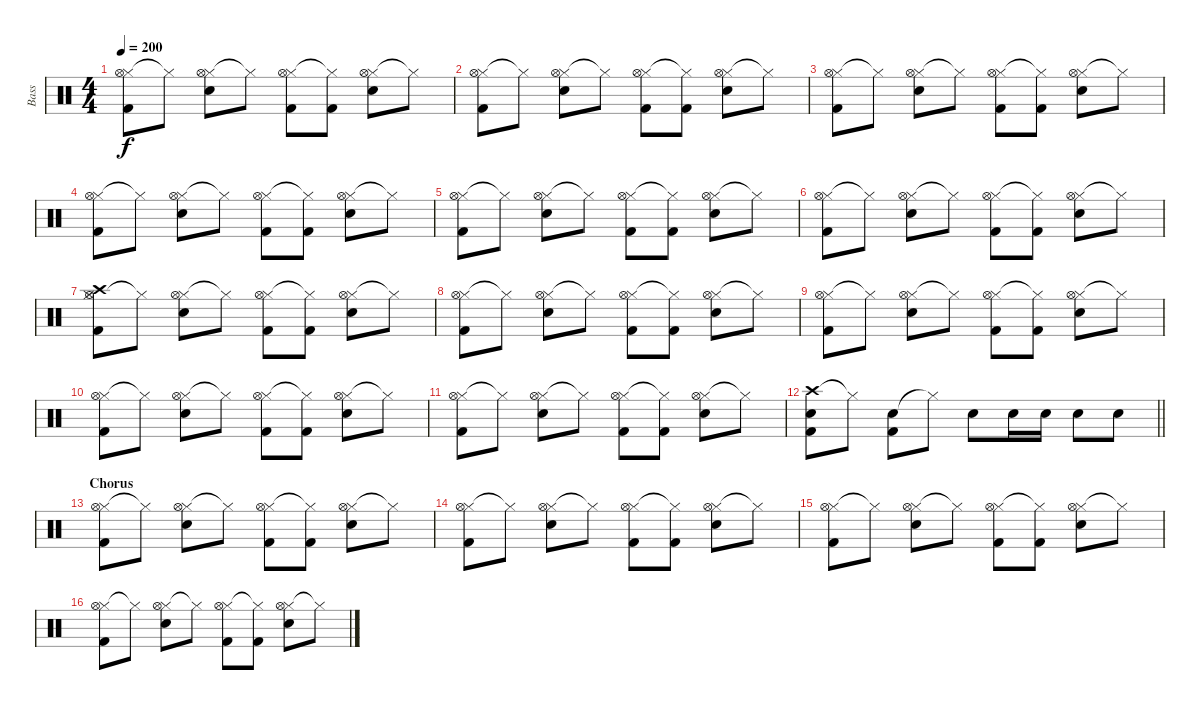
\track ("Bass" "Bass") {instrument percussion}
\staff {score}
\articulation defaults
\ts (4 4)
\tempo 200
\clef neutral
\ks c
("Hi-Hat (closed)" "Hi-Hat (open)" "Kick (hit) 2").8{dy f} "Hi-Hat (closed)"{t}.8 ("Hi-Hat (closed)" "Hi-Hat (open)" "Snare (hit) 2").8 "Hi-Hat (closed)"{t}.8 ("Hi-Hat (closed)" "Hi-Hat (open)" "Kick (hit) 2").8 ("Hi-Hat (closed)"{t} "Kick (hit) 2").8 ("Hi-Hat (closed)" "Hi-Hat (open)" "Snare (hit) 2").8 "Hi-Hat (closed)"{t}.8 |
("Hi-Hat (closed)" "Hi-Hat (open)" "Kick (hit) 2").8 "Hi-Hat (closed)"{t}.8 ("Hi-Hat (closed)" "Hi-Hat (open)" "Snare (hit) 2").8 "Hi-Hat (closed)"{t}.8 ("Hi-Hat (closed)" "Hi-Hat (open)" "Kick (hit) 2").8 ("Hi-Hat (closed)"{t} "Kick (hit) 2").8 ("Hi-Hat (closed)" "Hi-Hat (open)" "Snare (hit) 2").8 "Hi-Hat (closed)"{t}.8 |
("Hi-Hat (closed)" "Hi-Hat (open)" "Kick (hit) 2").8 "Hi-Hat (closed)"{t}.8 ("Hi-Hat (closed)" "Hi-Hat (open)" "Snare (hit) 2").8 "Hi-Hat (closed)"{t}.8 ("Hi-Hat (closed)" "Hi-Hat (open)" "Kick (hit) 2").8 ("Hi-Hat (closed)"{t} "Kick (hit) 2").8 ("Hi-Hat (closed)" "Hi-Hat (open)" "Snare (hit) 2").8 "Hi-Hat (closed)"{t}.8 |
("Hi-Hat (closed)" "Hi-Hat (open)" "Kick (hit) 2").8 "Hi-Hat (closed)"{t}.8 ("Hi-Hat (closed)" "Hi-Hat (open)" "Snare (hit) 2").8 "Hi-Hat (closed)"{t}.8 ("Hi-Hat (closed)" "Hi-Hat (open)" "Kick (hit) 2").8 ("Hi-Hat (closed)"{t} "Kick (hit) 2").8 ("Hi-Hat (closed)" "Hi-Hat (open)" "Snare (hit) 2").8 "Hi-Hat (closed)"{t}.8 |
("Hi-Hat (closed)" "Hi-Hat (open)" "Kick (hit) 2").8 "Hi-Hat (closed)"{t}.8 ("Hi-Hat (closed)" "Hi-Hat (open)" "Snare (hit) 2").8 "Hi-Hat (closed)"{t}.8 ("Hi-Hat (closed)" "Hi-Hat (open)" "Kick (hit) 2").8 ("Hi-Hat (closed)"{t} "Kick (hit) 2").8 ("Hi-Hat (closed)" "Hi-Hat (open)" "Snare (hit) 2").8 "Hi-Hat (closed)"{t}.8 |
("Hi-Hat (closed)" "Hi-Hat (open)" "Kick (hit) 2").8 "Hi-Hat (closed)"{t}.8 ("Hi-Hat (closed)" "Hi-Hat (open)" "Snare (hit) 2").8 "Hi-Hat (closed)"{t}.8 ("Hi-Hat (closed)" "Hi-Hat (open)" "Kick (hit) 2").8 ("Hi-Hat (closed)"{t} "Kick (hit) 2").8 ("Hi-Hat (closed)" "Hi-Hat (open)" "Snare (hit) 2").8 "Hi-Hat (closed)"{t}.8 |
("Hi-Hat (closed)" "Hi-Hat (open)" "Crash high (hit)" "Kick (hit) 2").8 "Hi-Hat (closed)"{t}.8 ("Hi-Hat (closed)" "Hi-Hat (open)" "Snare (hit) 2").8 "Hi-Hat (closed)"{t}.8 ("Hi-Hat (closed)" "Hi-Hat (open)" "Kick (hit) 2").8 ("Hi-Hat (closed)"{t} "Kick (hit) 2").8 ("Hi-Hat (closed)" "Hi-Hat (open)" "Snare (hit) 2").8 "Hi-Hat (closed)"{t}.8 |
("Hi-Hat (closed)" "Hi-Hat (open)" "Kick (hit) 2").8 "Hi-Hat (closed)"{t}.8 ("Hi-Hat (closed)" "Hi-Hat (open)" "Snare (hit) 2").8 "Hi-Hat (closed)"{t}.8 ("Hi-Hat (closed)" "Hi-Hat (open)" "Kick (hit) 2").8 ("Hi-Hat (closed)"{t} "Kick (hit) 2").8 ("Hi-Hat (closed)" "Hi-Hat (open)" "Snare (hit) 2").8 "Hi-Hat (closed)"{t}.8 |
("Hi-Hat (closed)" "Hi-Hat (open)" "Kick (hit) 2").8 "Hi-Hat (closed)"{t}.8 ("Hi-Hat (closed)" "Hi-Hat (open)" "Snare (hit) 2").8 "Hi-Hat (closed)"{t}.8 ("Hi-Hat (closed)" "Hi-Hat (open)" "Kick (hit) 2").8 ("Hi-Hat (closed)"{t} "Kick (hit) 2").8 ("Hi-Hat (closed)" "Hi-Hat (open)" "Snare (hit) 2").8 "Hi-Hat (closed)"{t}.8 |
("Hi-Hat (closed)" "Hi-Hat (open)" "Kick (hit) 2").8 "Hi-Hat (closed)"{t}.8 ("Hi-Hat (closed)" "Hi-Hat (open)" "Snare (hit) 2").8 "Hi-Hat (closed)"{t}.8 ("Hi-Hat (closed)" "Hi-Hat (open)" "Kick (hit) 2").8 ("Hi-Hat (closed)"{t} "Kick (hit) 2").8 ("Hi-Hat (closed)" "Hi-Hat (open)" "Snare (hit) 2").8 "Hi-Hat (closed)"{t}.8 |
("Hi-Hat (closed)" "Hi-Hat (open)" "Kick (hit) 2").8 "Hi-Hat (closed)"{t}.8 ("Hi-Hat (closed)" "Hi-Hat (open)" "Snare (hit) 2").8 "Hi-Hat (closed)"{t}.8 ("Hi-Hat (closed)" "Hi-Hat (open)" "Kick (hit) 2").8 ("Hi-Hat (closed)"{t} "Kick (hit) 2").8 ("Hi-Hat (closed)" "Hi-Hat (open)" "Snare (hit) 2").8 "Hi-Hat (closed)"{t}.8 |
\barLineRight lightlight
("Crash high (hit)" "Snare (hit) 2" "Kick (hit) 2").8 "Hi-Hat (closed)"{t}.8 ("Snare (hit) 2" "Kick (hit) 2").8 "Hi-Hat (closed)"{t}.8 "Snare (hit) 2".8 "Snare (hit) 2".16 "Snare (hit) 2".16 "Snare (hit) 2".8 "Snare (hit) 2".8 |
\section ("" "Chorus")
("Hi-Hat (closed)" "Hi-Hat (open)" "Kick (hit) 2").8 "Hi-Hat (closed)"{t}.8 ("Hi-Hat (closed)" "Hi-Hat (open)" "Snare (hit) 2").8 "Hi-Hat (closed)"{t}.8 ("Hi-Hat (closed)" "Hi-Hat (open)" "Kick (hit) 2").8 ("Hi-Hat (closed)"{t} "Kick (hit) 2").8 ("Hi-Hat (closed)" "Hi-Hat (open)" "Snare (hit) 2").8 "Hi-Hat (closed)"{t}.8 |
("Hi-Hat (closed)" "Hi-Hat (open)" "Kick (hit) 2").8 "Hi-Hat (closed)"{t}.8 ("Hi-Hat (closed)" "Hi-Hat (open)" "Snare (hit) 2").8 "Hi-Hat (closed)"{t}.8 ("Hi-Hat (closed)" "Hi-Hat (open)" "Kick (hit) 2").8 ("Hi-Hat (closed)"{t} "Kick (hit) 2").8 ("Hi-Hat (closed)" "Hi-Hat (open)" "Snare (hit) 2").8 "Hi-Hat (closed)"{t}.8 |
("Hi-Hat (closed)" "Hi-Hat (open)" "Kick (hit) 2").8 "Hi-Hat (closed)"{t}.8 ("Hi-Hat (closed)" "Hi-Hat (open)" "Snare (hit) 2").8 "Hi-Hat (closed)"{t}.8 ("Hi-Hat (closed)" "Hi-Hat (open)" "Kick (hit) 2").8 ("Hi-Hat (closed)"{t} "Kick (hit) 2").8 ("Hi-Hat (closed)" "Hi-Hat (open)" "Snare (hit) 2").8 "Hi-Hat (closed)"{t}.8 |
("Hi-Hat (closed)" "Hi-Hat (open)" "Kick (hit) 2").8 "Hi-Hat (closed)"{t}.8 ("Hi-Hat (closed)" "Hi-Hat (open)" "Snare (hit) 2").8 "Hi-Hat (closed)"{t}.8 ("Hi-Hat (closed)" "Hi-Hat (open)" "Kick (hit) 2").8 ("Hi-Hat (closed)"{t} "Kick (hit) 2").8 ("Hi-Hat (closed)" "Hi-Hat (open)" "Snare (hit) 2").8 "Hi-Hat (closed)"{t}.8
